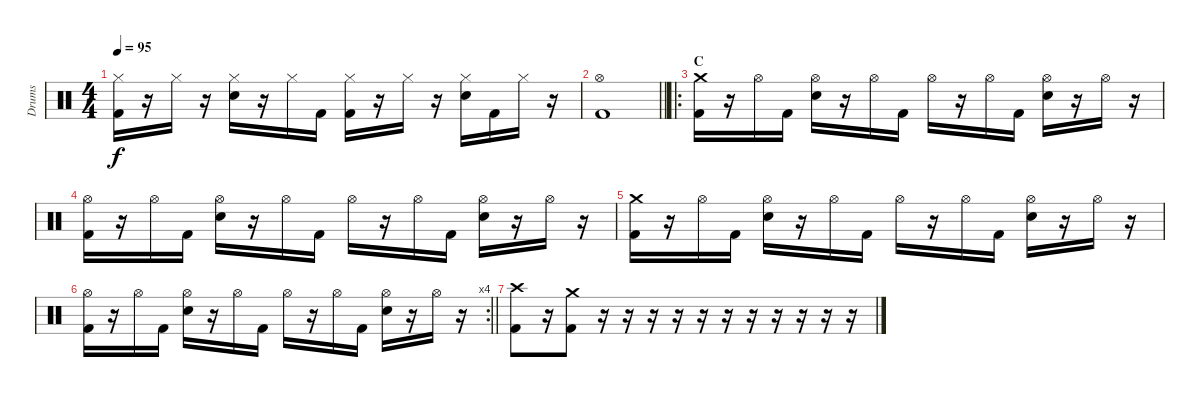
\track ("Drums" "Drums") {instrument percussion}
\staff {score}
\articulation defaults
\ts (4 4)
\tempo 95
\clef neutral
\ks c
("Hi-Hat (closed)" "Kick (hit) 2").16{dy f} r.16 "Hi-Hat (closed)".16 r.16 ("Hi-Hat (closed)" "Snare (hit) 2").16 r.16 "Hi-Hat (closed)".16 "Kick (hit) 2".16 ("Hi-Hat (closed)" "Kick (hit) 2").16 r.16 "Hi-Hat (closed)".16 r.16 ("Hi-Hat (closed)" "Snare (hit) 2").16 "Kick (hit) 2".16 "Hi-Hat (closed)".16 r.16 |
\barLineRight lightlight
("Hi-Hat (open)" "Kick (hit) 2").1 |
\ro
\section ("" "C")
("Crash medium (hit)" "Kick (hit) 2").16 r.16 "Hi-Hat (open)".16 "Kick (hit) 2".16 ("Hi-Hat (open)" "Snare (hit) 2").16 r.16 "Hi-Hat (open)".16 "Kick (hit) 2".16 "Hi-Hat (open)".16 r.16 "Hi-Hat (open)".16 "Kick (hit) 2".16 ("Hi-Hat (open)" "Snare (hit) 2").16 r.16 "Hi-Hat (open)".16 r.16 |
("Hi-Hat (open)" "Kick (hit) 2").16 r.16 "Hi-Hat (open)".16 "Kick (hit) 2".16 ("Hi-Hat (open)" "Snare (hit) 2").16 r.16 "Hi-Hat (open)".16 "Kick (hit) 2".16 "Hi-Hat (open)".16 r.16 "Hi-Hat (open)".16 "Kick (hit) 2".16 ("Hi-Hat (open)" "Snare (hit) 2").16 r.16 "Hi-Hat (open)".16 r.16 |
("Crash medium (hit)" "Kick (hit) 2").16 r.16 "Hi-Hat (open)".16 "Kick (hit) 2".16 ("Hi-Hat (open)" "Snare (hit) 2").16 r.16 "Hi-Hat (open)".16 "Kick (hit) 2".16 "Hi-Hat (open)".16 r.16 "Hi-Hat (open)".16 "Kick (hit) 2".16 ("Hi-Hat (open)" "Snare (hit) 2").16 r.16 "Hi-Hat (open)".16 r.16 |
\rc 4
\barLineRight lightlight
("Hi-Hat (open)" "Kick (hit) 2").16 r.16 "Hi-Hat (open)".16 "Kick (hit) 2".16 ("Hi-Hat (open)" "Snare (hit) 2").16 r.16 "Hi-Hat (open)".16 "Kick (hit) 2".16 "Hi-Hat (open)".16 r.16 "Hi-Hat (open)".16 "Kick (hit) 2".16 ("Hi-Hat (open)" "Snare (hit) 2").16 r.16 "Hi-Hat (open)".16 r.16 |
("Crash high (hit)" "Kick (hit) 2").8 r.16 ("Crash medium (hit)" "Kick (hit) 2").8 r.16 r.16 r.16 r.16 r.16 r.16 r.16 r.16 r.16 r.16 r.16
